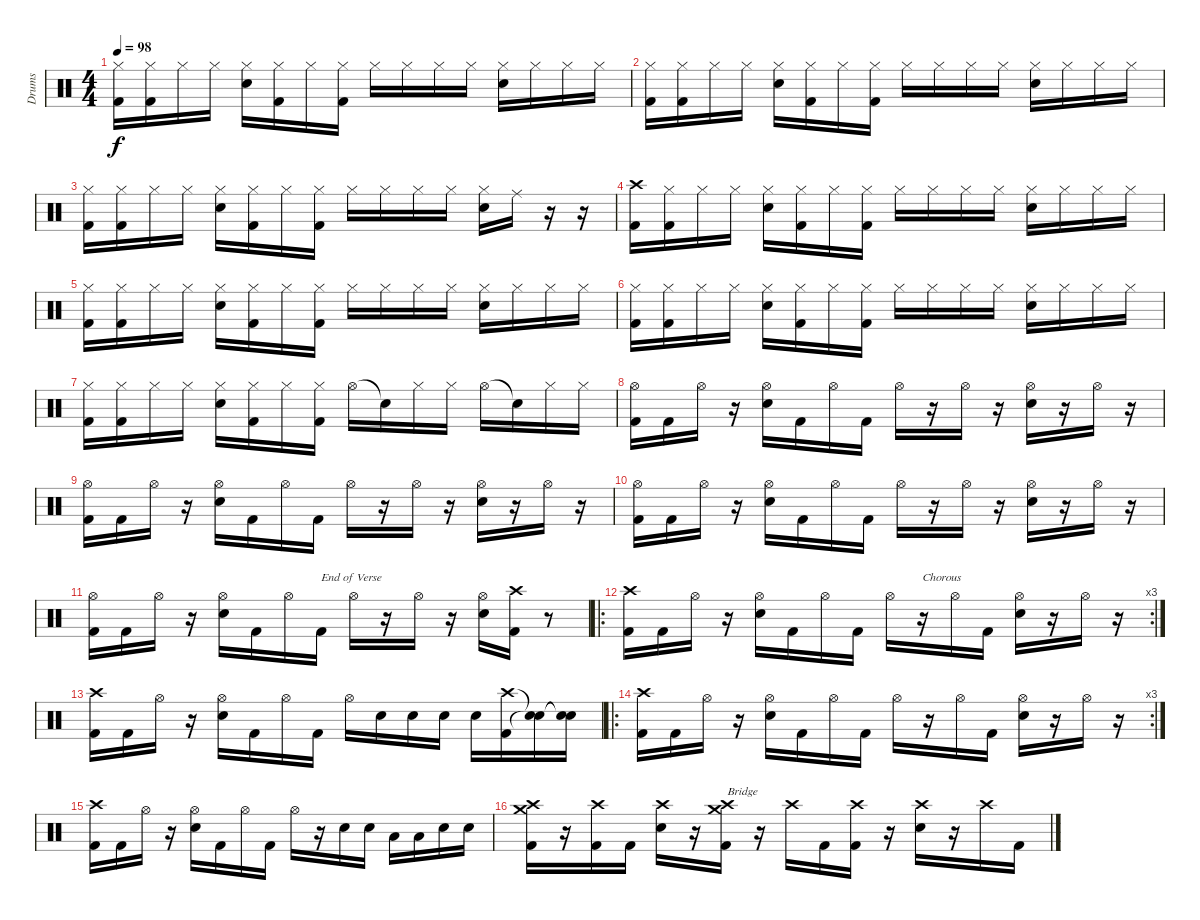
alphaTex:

\track ("Drums" "Drums") {instrument percussion}
\staff {score}
\articulation defaults
\ts (4 4)
\tempo 98
\clef neutral
\ks c
("Hi-Hat (closed)" "Kick (hit) 2").16{dy f} ("Hi-Hat (closed)" "Kick (hit) 2").16 "Hi-Hat (closed)".16 "Hi-Hat (closed)".16 ("Hi-Hat (closed)" "Snare (hit) 2").16 ("Hi-Hat (closed)" "Kick (hit) 2").16 "Hi-Hat (closed)".16 ("Hi-Hat (closed)" "Kick (hit) 2").16 "Hi-Hat (closed)".16 "Hi-Hat (closed)".16 "Hi-Hat (closed)".16 "Hi-Hat (closed)".16 ("Hi-Hat (closed)" "Snare (hit) 2").16 "Hi-Hat (closed)".16 "Hi-Hat (closed)".16 "Hi-Hat (closed)".16 |
("Hi-Hat (closed)" "Kick (hit) 2").16 ("Hi-Hat (closed)" "Kick (hit) 2").16 "Hi-Hat (closed)".16 "Hi-Hat (closed)".16 ("Hi-Hat (closed)" "Snare (hit) 2").16 ("Hi-Hat (closed)" "Kick (hit) 2").16 "Hi-Hat (closed)".16 ("Hi-Hat (closed)" "Kick (hit) 2").16 "Hi-Hat (closed)".16 "Hi-Hat (closed)".16 "Hi-Hat (closed)".16 "Hi-Hat (closed)".16 ("Hi-Hat (closed)" "Snare (hit) 2").16 "Hi-Hat (closed)".16 "Hi-Hat (closed)".16 "Hi-Hat (closed)".16 |
("Hi-Hat (closed)" "Kick (hit) 2").16 ("Hi-Hat (closed)" "Kick (hit) 2").16 "Hi-Hat (closed)".16 "Hi-Hat (closed)".16 ("Hi-Hat (closed)" "Snare (hit) 2").16 ("Hi-Hat (closed)" "Kick (hit) 2").16 "Hi-Hat (closed)".16 ("Hi-Hat (closed)" "Kick (hit) 2").16 "Hi-Hat (closed)".16 "Hi-Hat (closed)".16 "Hi-Hat (closed)".16 "Hi-Hat (closed)".16 ("Hi-Hat (closed)" "Snare (hit) 2").16 "Ride (middle)".16 r.16 r.16 |
("Crash high (hit)" "Kick (hit) 2").16 ("Hi-Hat (closed)" "Kick (hit) 2").16 "Hi-Hat (closed)".16 "Hi-Hat (closed)".16 ("Hi-Hat (closed)" "Snare (hit) 2").16 ("Hi-Hat (closed)" "Kick (hit) 2").16 "Hi-Hat (closed)".16 ("Hi-Hat (closed)" "Kick (hit) 2").16 "Hi-Hat (closed)".16 "Hi-Hat (closed)".16 "Hi-Hat (closed)".16 "Hi-Hat (closed)".16 ("Hi-Hat (closed)" "Snare (hit) 2").16 "Hi-Hat (closed)".16 "Hi-Hat (closed)".16 "Hi-Hat (closed)".16 |
("Hi-Hat (closed)" "Kick (hit) 2").16 ("Hi-Hat (closed)" "Kick (hit) 2").16 "Hi-Hat (closed)".16 "Hi-Hat (closed)".16 ("Hi-Hat (closed)" "Snare (hit) 2").16 ("Hi-Hat (closed)" "Kick (hit) 2").16 "Hi-Hat (closed)".16 ("Hi-Hat (closed)" "Kick (hit) 2").16 "Hi-Hat (closed)".16 "Hi-Hat (closed)".16 "Hi-Hat (closed)".16 "Hi-Hat (closed)".16 ("Hi-Hat (closed)" "Snare (hit) 2").16 "Hi-Hat (closed)".16 "Hi-Hat (closed)".16 "Hi-Hat (closed)".16 |
("Hi-Hat (closed)" "Kick (hit) 2").16 ("Hi-Hat (closed)" "Kick (hit) 2").16 "Hi-Hat (closed)".16 "Hi-Hat (closed)".16 ("Hi-Hat (closed)" "Snare (hit) 2").16 ("Hi-Hat (closed)" "Kick (hit) 2").16 "Hi-Hat (closed)".16 ("Hi-Hat (closed)" "Kick (hit) 2").16 "Hi-Hat (closed)".16 "Hi-Hat (closed)".16 "Hi-Hat (closed)".16 "Hi-Hat (closed)".16 ("Hi-Hat (closed)" "Snare (hit) 2").16 "Hi-Hat (closed)".16 "Hi-Hat (closed)".16 "Hi-Hat (closed)".16 |
("Hi-Hat (closed)" "Kick (hit) 2").16 ("Hi-Hat (closed)" "Kick (hit) 2").16 "Hi-Hat (closed)".16 "Hi-Hat (closed)".16 ("Hi-Hat (closed)" "Snare (hit) 2").16 ("Hi-Hat (closed)" "Kick (hit) 2").16 "Hi-Hat (closed)".16 ("Hi-Hat (closed)" "Kick (hit) 2").16 "Hi-Hat (open)".16 "Snare (hit)"{t}.16 "Hi-Hat (closed)".16 "Hi-Hat (closed)".16 "Hi-Hat (open)".16 "Snare (hit)"{t}.16 "Hi-Hat (closed)".16 "Hi-Hat (closed)".16 |
("Hi-Hat (open)" "Kick (hit) 2").16 "Kick (hit) 2".16 "Hi-Hat (open)".16 r.16 ("Hi-Hat (open)" "Snare (hit) 2").16 "Kick (hit) 2".16 "Hi-Hat (open)".16 "Kick (hit) 2".16 "Hi-Hat (open)".16 r.16 "Hi-Hat (open)".16 r.16 ("Hi-Hat (open)" "Snare (hit) 2").16 r.16 "Hi-Hat (open)".16 r.16 |
("Hi-Hat (open)" "Kick (hit) 2").16 "Kick (hit) 2".16 "Hi-Hat (open)".16 r.16 ("Hi-Hat (open)" "Snare (hit) 2").16 "Kick (hit) 2".16 "Hi-Hat (open)".16 "Kick (hit) 2".16 "Hi-Hat (open)".16 r.16 "Hi-Hat (open)".16 r.16 ("Hi-Hat (open)" "Snare (hit) 2").16 r.16 "Hi-Hat (open)".16 r.16 |
("Hi-Hat (open)" "Kick (hit) 2").16 "Kick (hit) 2".16 "Hi-Hat (open)".16 r.16 ("Hi-Hat (open)" "Snare (hit) 2").16 "Kick (hit) 2".16 "Hi-Hat (open)".16 "Kick (hit) 2".16 "Hi-Hat (open)".16 r.16 "Hi-Hat (open)".16 r.16 ("Hi-Hat (open)" "Snare (hit) 2").16 r.16 "Hi-Hat (open)".16 r.16 |
("Hi-Hat (open)" "Kick (hit) 2").16 "Kick (hit) 2".16 "Hi-Hat (open)".16 r.16 ("Hi-Hat (open)" "Snare (hit) 2").16 "Kick (hit) 2".16 "Hi-Hat (open)".16 "Kick (hit) 2".16{txt "End of Verse"} "Hi-Hat (open)".16 r.16 "Hi-Hat (open)".16 r.16 ("Hi-Hat (open)" "Snare (hit) 2").16 ("Crash high (hit)" "Kick (hit) 2").16 r.8 |
\ro
\rc 3
("Crash high (hit)" "Kick (hit) 2").16 "Kick (hit) 2".16 "Hi-Hat (open)".16 r.16 ("Hi-Hat (open)" "Snare (hit) 2").16 "Kick (hit) 2".16 "Hi-Hat (open)".16 "Kick (hit) 2".16 "Hi-Hat (open)".16 r.16{txt "Chorous"} "Hi-Hat (open)".16 "Kick (hit) 2".16 ("Hi-Hat (open)" "Snare (hit) 2").16 r.16 "Hi-Hat (open)".16 r.16 |
("Crash high (hit)" "Kick (hit) 2").16 "Kick (hit) 2".16 "Hi-Hat (open)".16 r.16 ("Hi-Hat (open)" "Snare (hit) 2").16 "Kick (hit) 2".16 "Hi-Hat (open)".16 "Kick (hit) 2".16 "Hi-Hat (open)".16 "Snare (hit) 2".16 "Snare (hit) 2".16 "Snare (hit) 2".16 "Snare (hit) 2".16 ("Crash high (hit)" "Kick (hit) 2").16 ("Snare (hit)"{t} "Snare (hit)"{t}).16 ("Snare (hit)"{t} "Snare (hit)"{t}).16 |
\ro
\rc 3
("Crash high (hit)" "Kick (hit) 2").16 "Kick (hit) 2".16 "Hi-Hat (open)".16 r.16 ("Hi-Hat (open)" "Snare (hit) 2").16 "Kick (hit) 2".16 "Hi-Hat (open)".16 "Kick (hit) 2".16 "Hi-Hat (open)".16 r.16 "Hi-Hat (open)".16 "Kick (hit) 2".16 ("Hi-Hat (open)" "Snare (hit) 2").16 r.16 "Hi-Hat (open)".16 r.16 |
("Crash high (hit)" "Kick (hit) 2").16 "Kick (hit) 2".16 "Hi-Hat (open)".16 r.16 ("Hi-Hat (open)" "Snare (hit) 2").16 "Kick (hit) 2".16 "Hi-Hat (open)".16 "Kick (hit) 2".16 "Hi-Hat (open)".16 r.16 "Snare (hit) 2".16 "Snare (hit) 2".16 "Low Tom (hit)".16 "Low Tom (hit)".16 "Snare (hit) 2".16 "Snare (hit) 2".16 |
("Crash high (hit)" "Crash medium (hit)" "Kick (hit) 2").16 r.16 ("Crash high (hit)" "Kick (hit) 2").16 "Kick (hit) 2".16 ("Crash high (hit)" "Snare (hit) 2").16 r.16 ("Crash high (hit)" "Crash medium (hit)" "Kick (hit) 2").16{txt "Bridge"} r.16 "Crash high (hit)".16 "Kick (hit) 2".16 ("Crash high (hit)" "Kick (hit) 2").16 r.16 ("Crash high (hit)" "Snare (hit) 2").16 r.16 "Crash high (hit)".16 "Kick (hit) 2".16
